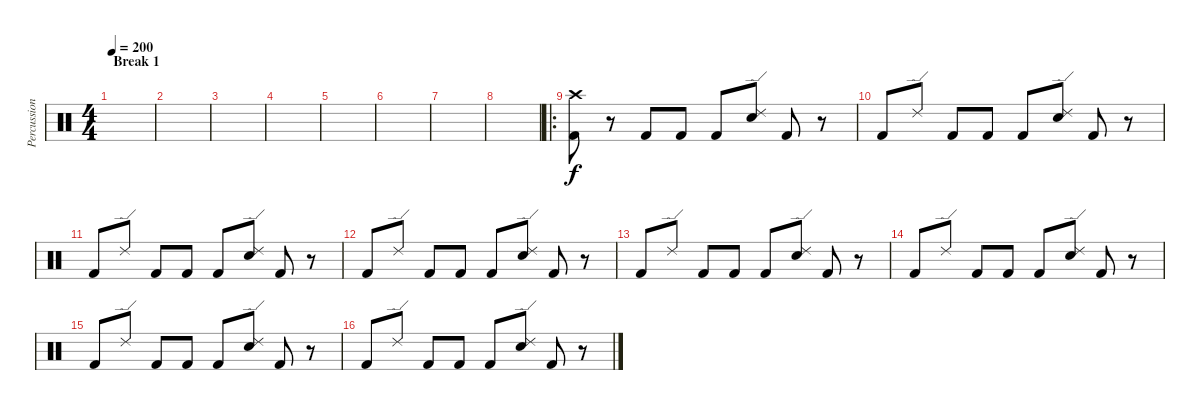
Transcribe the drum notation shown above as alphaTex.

\track ("Percussion" "Percussion") {instrument percussion}
\staff {score}
\articulation defaults
\ts (4 4)
\section ("" "Break 1")
\tempo 200
\clef neutral
\ks c
|
|
|
|
|
|
|
|
\ro
("Crash high (hit)" "Kick (hit) 2").8 r.8 "Kick (hit) 2".8 "Kick (hit) 2".8 "Kick (hit) 2".8 ("Ride (edge) 2" "Electric Snare (hit)").8 "Kick (hit) 2".8 r.8 |
"Kick (hit) 2".8 "Ride (edge) 2".8 "Kick (hit) 2".8 "Kick (hit) 2".8 "Kick (hit) 2".8 ("Ride (edge) 2" "Electric Snare (hit)").8 "Kick (hit) 2".8 r.8 |
"Kick (hit) 2".8 "Ride (edge) 2".8 "Kick (hit) 2".8 "Kick (hit) 2".8 "Kick (hit) 2".8 ("Ride (edge) 2" "Electric Snare (hit)").8 "Kick (hit) 2".8 r.8 |
"Kick (hit) 2".8 "Ride (edge) 2".8 "Kick (hit) 2".8 "Kick (hit) 2".8 "Kick (hit) 2".8 ("Ride (edge) 2" "Electric Snare (hit)").8 "Kick (hit) 2".8 r.8 |
"Kick (hit) 2".8 "Ride (edge) 2".8 "Kick (hit) 2".8 "Kick (hit) 2".8 "Kick (hit) 2".8 ("Ride (edge) 2" "Electric Snare (hit)").8 "Kick (hit) 2".8 r.8 |
"Kick (hit) 2".8 "Ride (edge) 2".8 "Kick (hit) 2".8 "Kick (hit) 2".8 "Kick (hit) 2".8 ("Ride (edge) 2" "Electric Snare (hit)").8 "Kick (hit) 2".8 r.8 |
"Kick (hit) 2".8 "Ride (edge) 2".8 "Kick (hit) 2".8 "Kick (hit) 2".8 "Kick (hit) 2".8 ("Ride (edge) 2" "Electric Snare (hit)").8 "Kick (hit) 2".8 r.8 |
"Kick (hit) 2".8 "Ride (edge) 2".8 "Kick (hit) 2".8 "Kick (hit) 2".8 "Kick (hit) 2".8 ("Ride (edge) 2" "Electric Snare (hit)").8 "Kick (hit) 2".8 r.8
